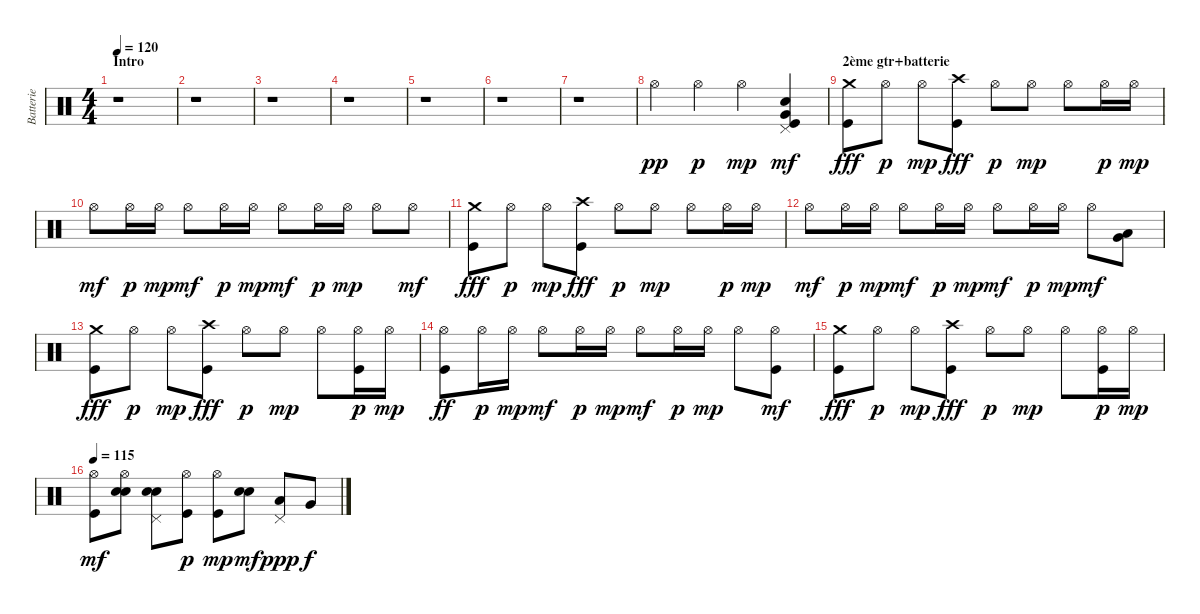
\track ("Batterie" "Batterie") {instrument percussion}
\staff {score}
\articulation defaults
\ts (4 4)
\section ("" "Intro")
\tempo 120
\clef neutral
\ks c
r.1{dy pp} |
r.1 |
r.1 |
r.1 |
r.1 |
r.1 |
r.1 |
"Hi-Hat (open)".4 "Hi-Hat (open)".4{dy p} "Hi-Hat (open)".4{dy mp} ("Pedal Hi-Hat (hit)" "Electric Snare (hit)" "Very Low Tom (hit)" "Kick (hit)").4{bd 60 dy mf} |
\section ("" "2ème gtr+batterie")
("Crash medium (hit)" "Kick (hit)").8{dy fff} "Hi-Hat (open)".8{dy p} "Hi-Hat (open)".8{dy mp} ("Crash high (hit)" "Kick (hit)").8{dy fff} "Hi-Hat (open)".8{dy p} "Hi-Hat (open)".8{dy mp} "Hi-Hat (open)".8 "Hi-Hat (open)".16{dy p} "Hi-Hat (open)".16{dy mp} |
"Hi-Hat (open)".8{dy mf} "Hi-Hat (open)".16{dy p} "Hi-Hat (open)".16{dy mp} "Hi-Hat (open)".8{dy mf} "Hi-Hat (open)".16{dy p} "Hi-Hat (open)".16{dy mp} "Hi-Hat (open)".8{dy mf} "Hi-Hat (open)".16{dy p} "Hi-Hat (open)".16{dy mp} "Hi-Hat (open)".8 "Hi-Hat (open)".8{dy mf} |
("Crash medium (hit)" "Kick (hit)").8{dy fff} "Hi-Hat (open)".8{dy p} "Hi-Hat (open)".8{dy mp} ("Crash high (hit)" "Kick (hit)").8{dy fff} "Hi-Hat (open)".8{dy p} "Hi-Hat (open)".8{dy mp} "Hi-Hat (open)".8 "Hi-Hat (open)".16{dy p} "Hi-Hat (open)".16{dy mp} |
"Hi-Hat (open)".8{dy mf} "Hi-Hat (open)".16{dy p} "Hi-Hat (open)".16{dy mp} "Hi-Hat (open)".8{dy mf} "Hi-Hat (open)".16{dy p} "Hi-Hat (open)".16{dy mp} "Hi-Hat (open)".8{dy mf} "Hi-Hat (open)".16{dy p} "Hi-Hat (open)".16{dy mp} "Hi-Hat (open)".8{dy mf} ("Low Tom (hit)" "Very Low Tom (hit)").8{bd 60} |
("Crash medium (hit)" "Kick (hit)").8{dy fff} "Hi-Hat (open)".8{dy p} "Hi-Hat (open)".8{dy mp} ("Crash high (hit)" "Kick (hit)").8{dy fff} "Hi-Hat (open)".8{dy p} "Hi-Hat (open)".8{dy mp} "Hi-Hat (open)".8 ("Hi-Hat (open)" "Kick (hit)").16{dy p} "Hi-Hat (open)".16{dy mp} |
("Hi-Hat (open)" "Kick (hit)").8{dy ff} "Hi-Hat (open)".16{dy p} "Hi-Hat (open)".16{dy mp} "Hi-Hat (open)".8{dy mf} "Hi-Hat (open)".16{dy p} "Hi-Hat (open)".16{dy mp} "Hi-Hat (open)".8{dy mf} "Hi-Hat (open)".16{dy p} "Hi-Hat (open)".16{dy mp} "Hi-Hat (open)".8 ("Hi-Hat (open)" "Kick (hit)").8{dy mf} |
("Crash medium (hit)" "Kick (hit)").8{dy fff} "Hi-Hat (open)".8{dy p} "Hi-Hat (open)".8{dy mp} ("Crash high (hit)" "Kick (hit)").8{dy fff} "Hi-Hat (open)".8{dy p} "Hi-Hat (open)".8{dy mp} "Hi-Hat (open)".8 ("Hi-Hat (open)" "Kick (hit)").16{dy p} "Hi-Hat (open)".16{dy mp} |
\tempo 115
("Hi-Hat (open)" "Kick (hit)").8{dy mf} ("Hi-Hat (open)" "Electric Snare (hit)" "Electric Snare (hit)").8{bu 60} ("Pedal Hi-Hat (hit)" "Electric Snare (hit)" "Electric Snare (hit)").8{bu 60} ("Hi-Hat (open)" "Kick (hit)").8{dy p} ("Hi-Hat (open)" "Kick (hit)").8{dy mp} ("Electric Snare (hit)" "Electric Snare (hit)").8{bu 120 dy mf} ("Pedal Hi-Hat (hit)" "Low Tom (hit)").8{dy ppp} "Very Low Tom (hit)".8{dy f}
